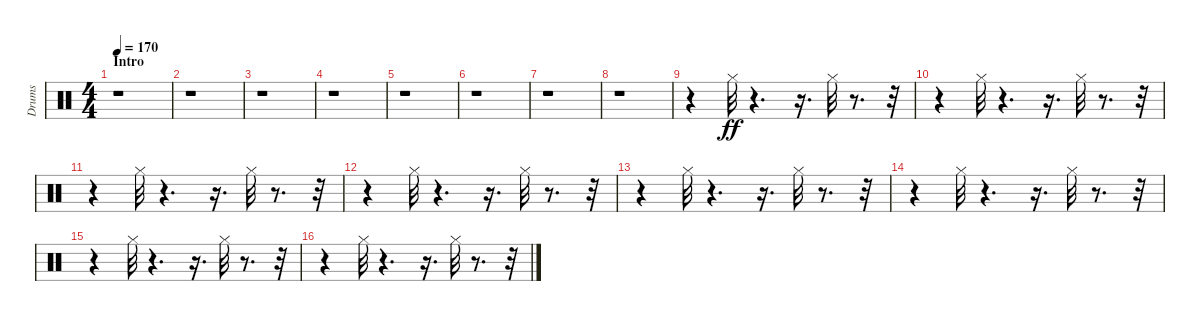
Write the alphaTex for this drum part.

\track ("Drums" "Drums") {instrument percussion}
\staff {score}
\articulation defaults
\ts (4 4)
\section ("" "Intro")
\tempo 170
\clef neutral
\ks c
r.1{dy ff} |
r.1 |
r.1 |
r.1 |
r.1 |
r.1 |
r.1 |
r.1 |
r.4 "Hi-Hat (closed)".32 r.4{d} r.16{d} "Hi-Hat (closed)".32 r.8{d} r.32 |
r.4 "Hi-Hat (closed)".32 r.4{d} r.16{d} "Hi-Hat (closed)".32 r.8{d} r.32 |
r.4 "Hi-Hat (closed)".32 r.4{d} r.16{d} "Hi-Hat (closed)".32 r.8{d} r.32 |
r.4 "Hi-Hat (closed)".32 r.4{d} r.16{d} "Hi-Hat (closed)".32 r.8{d} r.32 |
r.4 "Hi-Hat (closed)".32 r.4{d} r.16{d} "Hi-Hat (closed)".32 r.8{d} r.32 |
r.4 "Hi-Hat (closed)".32 r.4{d} r.16{d} "Hi-Hat (closed)".32 r.8{d} r.32 |
r.4 "Hi-Hat (closed)".32 r.4{d} r.16{d} "Hi-Hat (closed)".32 r.8{d} r.32 |
r.4 "Hi-Hat (closed)".32 r.4{d} r.16{d} "Hi-Hat (closed)".32 r.8{d} r.32
